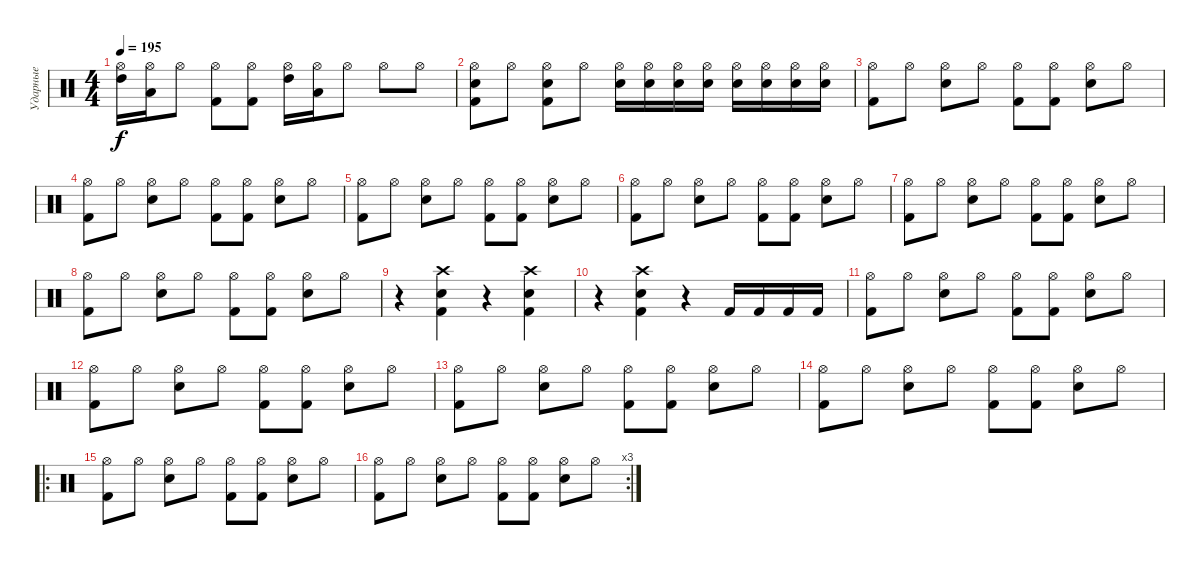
\track ("Ударные" "Ударные") {instrument percussion}
\staff {score}
\articulation defaults
\ts (4 4)
\tempo 195
\clef neutral
\ks c
("Hi-Hat (open)" "High Tom (hit)").16{dy f} ("Hi-Hat (open)" "Low Tom (hit)").16 "Hi-Hat (open)".8 ("Hi-Hat (open)" "Kick (hit) 2").8 ("Hi-Hat (open)" "Kick (hit) 2").8 ("Hi-Hat (open)" "High Tom (hit)").16 ("Hi-Hat (open)" "Low Tom (hit)").16 "Hi-Hat (open)".8 "Hi-Hat (open)".8 "Hi-Hat (open)".8 |
("Hi-Hat (open)" "Kick (hit) 2" "Snare (hit) 2").8 "Hi-Hat (open)".8 ("Hi-Hat (open)" "Kick (hit) 2" "Snare (hit) 2").8 "Hi-Hat (open)".8 ("Snare (hit) 2" "Hi-Hat (open)").16 ("Snare (hit) 2" "Hi-Hat (open)").16 ("Snare (hit) 2" "Hi-Hat (open)").16 ("Snare (hit) 2" "Hi-Hat (open)").16 ("Snare (hit) 2" "Hi-Hat (open)").16 ("Snare (hit) 2" "Hi-Hat (open)").16 ("Snare (hit) 2" "Hi-Hat (open)").16 ("Snare (hit) 2" "Hi-Hat (open)").16 |
("Hi-Hat (open)" "Kick (hit) 2").8 "Hi-Hat (open)".8 ("Hi-Hat (open)" "Snare (hit) 2").8 "Hi-Hat (open)".8 ("Hi-Hat (open)" "Kick (hit) 2").8 ("Hi-Hat (open)" "Kick (hit) 2").8 ("Hi-Hat (open)" "Snare (hit) 2").8 "Hi-Hat (open)".8 |
("Hi-Hat (open)" "Kick (hit) 2").8 "Hi-Hat (open)".8 ("Hi-Hat (open)" "Snare (hit) 2").8 "Hi-Hat (open)".8 ("Hi-Hat (open)" "Kick (hit) 2").8 ("Hi-Hat (open)" "Kick (hit) 2").8 ("Hi-Hat (open)" "Snare (hit) 2").8 "Hi-Hat (open)".8 |
("Hi-Hat (open)" "Kick (hit) 2").8 "Hi-Hat (open)".8 ("Hi-Hat (open)" "Snare (hit) 2").8 "Hi-Hat (open)".8 ("Hi-Hat (open)" "Kick (hit) 2").8 ("Hi-Hat (open)" "Kick (hit) 2").8 ("Hi-Hat (open)" "Snare (hit) 2").8 "Hi-Hat (open)".8 |
("Hi-Hat (open)" "Kick (hit) 2").8 "Hi-Hat (open)".8 ("Hi-Hat (open)" "Snare (hit) 2").8 "Hi-Hat (open)".8 ("Hi-Hat (open)" "Kick (hit) 2").8 ("Hi-Hat (open)" "Kick (hit) 2").8 ("Hi-Hat (open)" "Snare (hit) 2").8 "Hi-Hat (open)".8 |
("Hi-Hat (open)" "Kick (hit) 2").8 "Hi-Hat (open)".8 ("Hi-Hat (open)" "Snare (hit) 2").8 "Hi-Hat (open)".8 ("Hi-Hat (open)" "Kick (hit) 2").8 ("Hi-Hat (open)" "Kick (hit) 2").8 ("Hi-Hat (open)" "Snare (hit) 2").8 "Hi-Hat (open)".8 |
("Hi-Hat (open)" "Kick (hit) 2").8 "Hi-Hat (open)".8 ("Hi-Hat (open)" "Snare (hit) 2").8 "Hi-Hat (open)".8 ("Hi-Hat (open)" "Kick (hit) 2").8 ("Hi-Hat (open)" "Kick (hit) 2").8 ("Hi-Hat (open)" "Snare (hit) 2").8 "Hi-Hat (open)".8 |
r.4 ("Snare (hit) 2" "Kick (hit) 2" "Crash high (hit)").4 r.4 ("Crash high (hit)" "Snare (hit) 2" "Kick (hit) 2").4 |
r.4 ("Kick (hit) 2" "Snare (hit) 2" "Crash high (hit)").4 r.4 "Kick (hit) 2".16 "Kick (hit) 2".16 "Kick (hit) 2".16 "Kick (hit) 2".16 |
("Hi-Hat (open)" "Kick (hit) 2").8 "Hi-Hat (open)".8 ("Hi-Hat (open)" "Snare (hit) 2").8 "Hi-Hat (open)".8 ("Hi-Hat (open)" "Kick (hit) 2").8 ("Hi-Hat (open)" "Kick (hit) 2").8 ("Hi-Hat (open)" "Snare (hit) 2").8 "Hi-Hat (open)".8 |
("Hi-Hat (open)" "Kick (hit) 2").8 "Hi-Hat (open)".8 ("Hi-Hat (open)" "Snare (hit) 2").8 "Hi-Hat (open)".8 ("Hi-Hat (open)" "Kick (hit) 2").8 ("Hi-Hat (open)" "Kick (hit) 2").8 ("Hi-Hat (open)" "Snare (hit) 2").8 "Hi-Hat (open)".8 |
("Hi-Hat (open)" "Kick (hit) 2").8 "Hi-Hat (open)".8 ("Hi-Hat (open)" "Snare (hit) 2").8 "Hi-Hat (open)".8 ("Hi-Hat (open)" "Kick (hit) 2").8 ("Hi-Hat (open)" "Kick (hit) 2").8 ("Hi-Hat (open)" "Snare (hit) 2").8 "Hi-Hat (open)".8 |
("Hi-Hat (open)" "Kick (hit) 2").8 "Hi-Hat (open)".8 ("Hi-Hat (open)" "Snare (hit) 2").8 "Hi-Hat (open)".8 ("Hi-Hat (open)" "Kick (hit) 2").8 ("Hi-Hat (open)" "Kick (hit) 2").8 ("Hi-Hat (open)" "Snare (hit) 2").8 "Hi-Hat (open)".8 |
\ro
("Hi-Hat (open)" "Kick (hit) 2").8 "Hi-Hat (open)".8 ("Hi-Hat (open)" "Snare (hit) 2").8 "Hi-Hat (open)".8 ("Hi-Hat (open)" "Kick (hit) 2").8 ("Hi-Hat (open)" "Kick (hit) 2").8 ("Hi-Hat (open)" "Snare (hit) 2").8 "Hi-Hat (open)".8 |
\rc 3
("Hi-Hat (open)" "Kick (hit) 2").8 "Hi-Hat (open)".8 ("Hi-Hat (open)" "Snare (hit) 2").8 "Hi-Hat (open)".8 ("Hi-Hat (open)" "Kick (hit) 2").8 ("Hi-Hat (open)" "Kick (hit) 2").8 ("Hi-Hat (open)" "Snare (hit) 2").8 "Hi-Hat (open)".8
